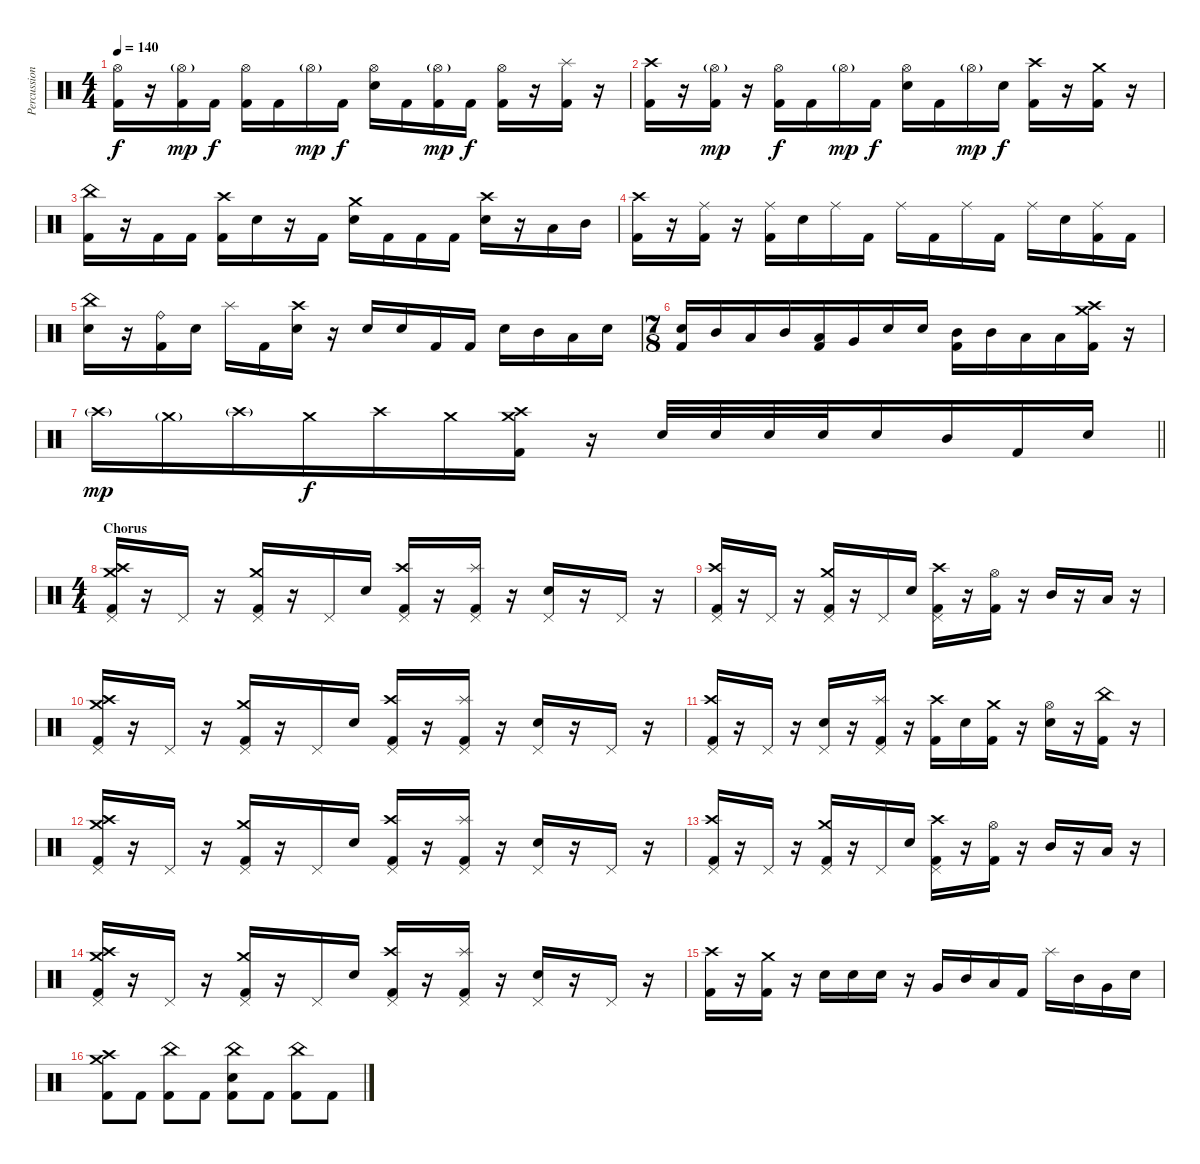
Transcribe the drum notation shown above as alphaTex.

\track ("Percussion" "Percussion") {instrument percussion}
\staff {score}
\articulation defaults
\ts (4 4)
\tempo 140
\clef neutral
\ks c
("Hi-Hat (open)" "Kick (hit) 2").16{dy f} r.16 ("Hi-Hat (open)"{g} "Kick (hit) 2").16{dy mp} "Kick (hit) 2".16{dy f} ("Hi-Hat (open)" "Kick (hit) 2").16 "Kick (hit) 2".16 "Hi-Hat (open)"{g}.16{dy mp} "Kick (hit) 2".16{dy f} ("Hi-Hat (open)" "Electric Snare (hit)").16 "Kick (hit) 2".16 ("Hi-Hat (open)"{g} "Kick (hit) 2").16{dy mp} "Kick (hit) 2".16{dy f} ("Hi-Hat (open)" "Kick (hit) 2").16 r.16 ("Splash (hit)" "Kick (hit) 2").16 r.16 |
("Crash high (hit)" "Kick (hit) 2").16 r.16 ("Hi-Hat (open)"{g} "Kick (hit) 2").16{dy mp} r.16 ("Hi-Hat (open)" "Kick (hit) 2").16{dy f} "Kick (hit) 2".16 "Hi-Hat (open)"{g}.16{dy mp} "Kick (hit) 2".16{dy f} ("Hi-Hat (open)" "Electric Snare (hit)").16 "Kick (hit) 2".16 "Hi-Hat (open)"{g}.16{dy mp} "Electric Snare (hit)".16{dy f} ("Crash high (hit)" "Kick (hit) 2").16 r.16 ("Crash medium (hit)" "Kick (hit) 2").16 r.16 |
("China (hit)" "Kick (hit) 2").16 r.16 "Kick (hit) 2".16 "Kick (hit) 2".16 ("Crash high (hit)" "Kick (hit) 2").16 "Electric Snare (hit)".16 r.16 "Kick (hit) 2".16 ("Crash medium (hit)" "Electric Snare (hit)").16 "Kick (hit) 2".16 "Kick (hit) 2".16 "Kick (hit) 2".16 ("Crash high (hit)" "Electric Snare (hit)").16 r.16 "Low Tom (hit)".16 "Mid Tom (hit)".16 |
("Crash high (hit)" "Kick (hit) 2").16 r.16 ("Ride (middle)" "Kick (hit) 2").16 r.16 ("Ride (middle)" "Kick (hit) 2").16 "Electric Snare (hit)".16 "Ride (middle)".16 "Kick (hit) 2".16 "Ride (middle)".16 "Kick (hit) 2".16 "Ride (middle)".16 "Kick (hit) 2".16 "Ride (middle)".16 "Electric Snare (hit)".16 ("Ride (middle)" "Kick (hit) 2").16 "Kick (hit) 2".16 |
("China (hit)" "Electric Snare (hit)").16 r.16 ("Ride (bell)" "Kick (hit) 2").16 "Electric Snare (hit)".16 "Splash (hit)".16 "Kick (hit) 2".16 ("Crash high (hit)" "Electric Snare (hit)").16 r.16 "Electric Snare (hit)".16 "Electric Snare (hit)".16 "Kick (hit) 2".16 "Kick (hit) 2".16 "Electric Snare (hit)".16 "Mid Tom (hit)".16 "Low Tom (hit)".16 "Electric Snare (hit)".16 |
\ts (7 8)
("Electric Snare (hit)" "Kick (hit) 2").16 "Mid Tom (hit)".16 "Low Tom (hit)".16 "Mid Tom (hit)".16 ("Low Tom (hit)" "Kick (hit) 2").16 "Very Low Tom (hit)".16 "Electric Snare (hit)".16 "Electric Snare (hit)".16 ("Mid Tom (hit)" "Kick (hit) 2").16 "Mid Tom (hit)".16 "Low Tom (hit)".16 "Low Tom (hit)".16 ("Crash high (hit)" "Crash medium (hit)" "Kick (hit) 2").16 r.16 |
\barLineRight lightlight "Crash high (hit)"{g}.16{dy mp} "Crash medium (hit)"{g}.16 "Crash high (hit)"{g}.16 "Crash medium (hit)".16{dy f} "Crash high (hit)".16 "Crash medium (hit)".16
("Crash high (hit)" "Crash medium (hit)" "Kick (hit) 2").16 r.16 "Electric Snare (hit)".32 "Electric Snare (hit)".32 "Electric Snare (hit)".32 "Electric Snare (hit)".32 "Electric Snare (hit)".16 "Mid Tom (hit)".16 "Kick (hit) 2".16 "Electric Snare (hit)".16 |
\ts (4 4)
\section ("" "Chorus")
("Crash high (hit)" "Crash medium (hit)" "Pedal Hi-Hat (hit)" "Kick (hit) 2").16 r.16 "Pedal Hi-Hat (hit)".16 r.16 ("Crash medium (hit)" "Pedal Hi-Hat (hit)" "Kick (hit) 2").16 r.16 "Pedal Hi-Hat (hit)".16 "Electric Snare (hit)".16 ("Crash high (hit)" "Pedal Hi-Hat (hit)" "Kick (hit) 2").16 r.16 ("Splash (hit)" "Pedal Hi-Hat (hit)" "Kick (hit) 2").16 r.16 ("Electric Snare (hit)" "Pedal Hi-Hat (hit)").16 r.16 "Pedal Hi-Hat (hit)".16 r.16 |
("Crash high (hit)" "Pedal Hi-Hat (hit)" "Kick (hit) 2").16 r.16 "Pedal Hi-Hat (hit)".16 r.16 ("Crash medium (hit)" "Pedal Hi-Hat (hit)" "Kick (hit) 2").16 r.16 "Pedal Hi-Hat (hit)".16 "Electric Snare (hit)".16 ("Crash high (hit)" "Pedal Hi-Hat (hit)" "Kick (hit) 2").16 r.16 ("Hi-Hat (open)" "Kick (hit) 2").16 r.16 "Mid Tom (hit)".16 r.16 "Low Tom (hit)".16 r.16 |
("Crash high (hit)" "Crash medium (hit)" "Pedal Hi-Hat (hit)" "Kick (hit) 2").16 r.16 "Pedal Hi-Hat (hit)".16 r.16 ("Crash medium (hit)" "Pedal Hi-Hat (hit)" "Kick (hit) 2").16 r.16 "Pedal Hi-Hat (hit)".16 "Electric Snare (hit)".16 ("Crash high (hit)" "Pedal Hi-Hat (hit)" "Kick (hit) 2").16 r.16 ("Splash (hit)" "Pedal Hi-Hat (hit)" "Kick (hit) 2").16 r.16 ("Electric Snare (hit)" "Pedal Hi-Hat (hit)").16 r.16 "Pedal Hi-Hat (hit)".16 r.16 |
("Crash high (hit)" "Pedal Hi-Hat (hit)" "Kick (hit) 2").16 r.16 "Pedal Hi-Hat (hit)".16 r.16 ("Electric Snare (hit)" "Pedal Hi-Hat (hit)").16 r.16 ("Splash (hit)" "Pedal Hi-Hat (hit)" "Kick (hit) 2").16 r.16 ("Crash high (hit)" "Kick (hit) 2").16 "Electric Snare (hit)".16 ("Crash medium (hit)" "Kick (hit) 2").16 r.16 ("Hi-Hat (open)" "Electric Snare (hit)").16 r.16 ("China (hit)" "Kick (hit) 2").16 r.16 |
("Crash high (hit)" "Crash medium (hit)" "Pedal Hi-Hat (hit)" "Kick (hit) 2").16 r.16 "Pedal Hi-Hat (hit)".16 r.16 ("Crash medium (hit)" "Pedal Hi-Hat (hit)" "Kick (hit) 2").16 r.16 "Pedal Hi-Hat (hit)".16 "Electric Snare (hit)".16 ("Crash high (hit)" "Pedal Hi-Hat (hit)" "Kick (hit) 2").16 r.16 ("Splash (hit)" "Pedal Hi-Hat (hit)" "Kick (hit) 2").16 r.16 ("Electric Snare (hit)" "Pedal Hi-Hat (hit)").16 r.16 "Pedal Hi-Hat (hit)".16 r.16 |
("Crash high (hit)" "Pedal Hi-Hat (hit)" "Kick (hit) 2").16 r.16 "Pedal Hi-Hat (hit)".16 r.16 ("Crash medium (hit)" "Pedal Hi-Hat (hit)" "Kick (hit) 2").16 r.16 "Pedal Hi-Hat (hit)".16 "Electric Snare (hit)".16 ("Crash high (hit)" "Pedal Hi-Hat (hit)" "Kick (hit) 2").16 r.16 ("Hi-Hat (open)" "Kick (hit) 2").16 r.16 "Mid Tom (hit)".16 r.16 "Low Tom (hit)".16 r.16 |
("Crash high (hit)" "Crash medium (hit)" "Pedal Hi-Hat (hit)" "Kick (hit) 2").16 r.16 "Pedal Hi-Hat (hit)".16 r.16 ("Crash medium (hit)" "Pedal Hi-Hat (hit)" "Kick (hit) 2").16 r.16 "Pedal Hi-Hat (hit)".16 "Electric Snare (hit)".16 ("Crash high (hit)" "Pedal Hi-Hat (hit)" "Kick (hit) 2").16 r.16 ("Splash (hit)" "Pedal Hi-Hat (hit)" "Kick (hit) 2").16 r.16 ("Electric Snare (hit)" "Pedal Hi-Hat (hit)").16 r.16 "Pedal Hi-Hat (hit)".16 r.16 |
("Crash high (hit)" "Kick (hit) 2").16 r.16 ("Crash medium (hit)" "Kick (hit) 2").16 r.16 "Electric Snare (hit)".16 "Electric Snare (hit)".16 "Electric Snare (hit)".16 r.16 "Very Low Tom (hit)".16 "Mid Tom (hit)".16 "Low Tom (hit)".16 "Kick (hit) 2".16 "Splash (hit)".16 "Mid Tom (hit)".16 "Very Low Tom (hit)".16 "Electric Snare (hit)".16 |
("Crash high (hit)" "Crash medium (hit)" "Kick (hit) 2").8 "Kick (hit) 2".8 ("China (hit)" "Kick (hit) 2").8 "Kick (hit) 2".8 ("China (hit)" "Electric Snare (hit)" "Kick (hit) 2").8 "Kick (hit) 2".8 ("China (hit)" "Kick (hit) 2").8 "Kick (hit) 2".8
